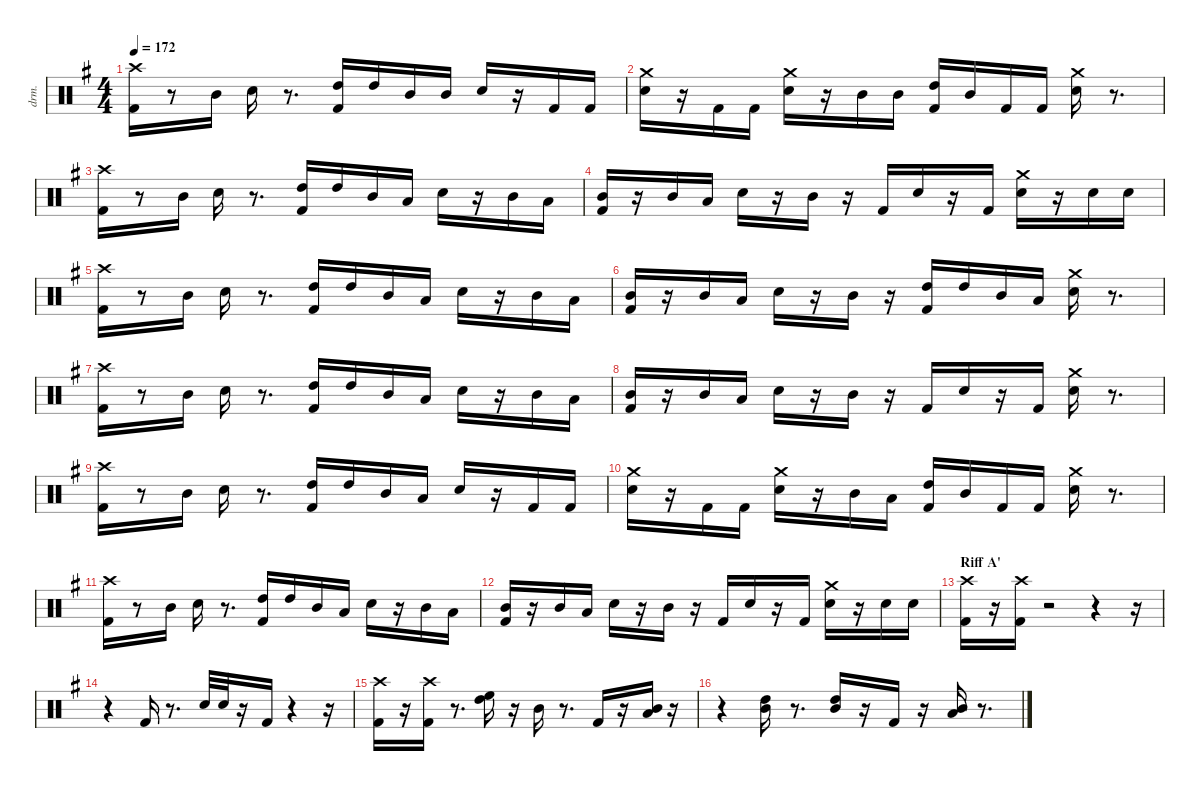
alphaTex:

\defaultSystemsLayout 4
\hideDynamics
\bracketExtendMode nobrackets
\otherSystemsTrackNameOrientation horizontal
\track ("Shinya" "drm.") {instrument percussion}
\staff {score}
\articulation defaults
\ts (4 4)
\tempo 172
\clef neutral
\ks eminor
("Kick (hit) 2"{acc forcenatural} "Crash high (hit)"{acc #}).16{dy fff} r.8 "Mid Tom (hit)"{acc forcenatural}.16 "Snare (hit) 2"{acc forcenatural}.16 r.8{d} ("Kick (hit) 2"{acc forcenatural} "High Tom (hit)"{acc forcenatural}).16 "High Tom (hit)"{acc forcenatural}.16 "Mid Tom (hit)"{acc forcenatural}.16 "Mid Tom (hit)"{acc forcenatural}.16 "Snare (hit) 2"{acc forcenatural}.16 r.16 "Kick (hit) 2"{acc forcenatural}.16 "Kick (hit) 2"{acc forcenatural}.16 |
("Snare (hit) 2"{acc forcenatural} "Crash medium (hit)"{acc forcenatural}).16 r.16 "Kick (hit) 2"{acc forcenatural}.16 "Kick (hit) 2"{acc forcenatural}.16 ("Snare (hit) 2"{acc forcenatural} "Crash medium (hit)"{acc forcenatural}).16 r.16 "Mid Tom (hit)"{acc forcenatural}.16 "Mid Tom (hit)"{acc forcenatural}.16 ("Kick (hit) 2"{acc forcenatural} "High Tom (hit)"{acc forcenatural}).16 "Mid Tom (hit)"{acc forcenatural}.16 "Kick (hit) 2"{acc forcenatural}.16 "Kick (hit) 2"{acc forcenatural}.16 ("Snare (hit) 2"{acc forcenatural} "Crash medium (hit)"{acc forcenatural}).16 r.8{d} |
("Kick (hit) 2"{acc forcenatural} "Crash high (hit)"{acc #}).16 r.8 "Mid Tom (hit)"{acc forcenatural}.16 "Snare (hit) 2"{acc forcenatural}.16 r.8{d} ("Kick (hit) 2"{acc forcenatural} "High Tom (hit)"{acc forcenatural}).16 "High Tom (hit)"{acc forcenatural}.16 "Mid Tom (hit)"{acc forcenatural}.16 "Low Tom (hit)"{acc forcenatural}.16 "Snare (hit) 2"{acc forcenatural}.16 r.16 "Mid Tom (hit)"{acc forcenatural}.16 "Low Tom (hit)"{acc forcenatural}.16 |
("Kick (hit) 2"{acc forcenatural} "Mid Tom (hit)"{acc forcenatural}).16 r.16 "Mid Tom (hit)"{acc forcenatural}.16 "Low Tom (hit)"{acc forcenatural}.16{dy ff} "Snare (hit) 2"{acc forcenatural}.16{dy fff} r.16 "Mid Tom (hit)"{acc forcenatural}.16 r.16 "Kick (hit) 2"{acc forcenatural}.16 "Snare (hit) 2"{acc forcenatural}.16 r.16 "Kick (hit) 2"{acc forcenatural}.16 ("Snare (hit) 2"{acc forcenatural} "Crash medium (hit)"{acc forcenatural}).16 r.16 "Snare (hit) 2"{acc forcenatural}.16 "Snare (hit) 2"{acc forcenatural}.16 |
("Kick (hit) 2"{acc forcenatural} "Crash high (hit)"{acc #}).16 r.8 "Mid Tom (hit)"{acc forcenatural}.16 "Snare (hit) 2"{acc forcenatural}.16 r.8{d} ("Kick (hit) 2"{acc forcenatural} "High Tom (hit)"{acc forcenatural}).16 "High Tom (hit)"{acc forcenatural}.16 "Mid Tom (hit)"{acc forcenatural}.16 "Low Tom (hit)"{acc forcenatural}.16 "Snare (hit) 2"{acc forcenatural}.16 r.16 "Mid Tom (hit)"{acc forcenatural}.16 "Low Tom (hit)"{acc forcenatural}.16 |
("Kick (hit) 2"{acc forcenatural} "Mid Tom (hit)"{acc forcenatural}).16 r.16 "Mid Tom (hit)"{acc forcenatural}.16 "Low Tom (hit)"{acc forcenatural}.16{dy ff} "Snare (hit) 2"{acc forcenatural}.16{dy fff} r.16 "Mid Tom (hit)"{acc forcenatural}.16 r.16 ("Kick (hit) 2"{acc forcenatural} "High Tom (hit)"{acc forcenatural}).16 "High Tom (hit)"{acc forcenatural}.16 "Mid Tom (hit)"{acc forcenatural}.16 "Low Tom (hit)"{acc forcenatural}.16 ("Snare (hit) 2"{acc forcenatural} "Crash medium (hit)"{acc forcenatural}).16 r.8{d} |
("Kick (hit) 2"{acc forcenatural} "Crash high (hit)"{acc #}).16 r.8 "Mid Tom (hit)"{acc forcenatural}.16 "Snare (hit) 2"{acc forcenatural}.16 r.8{d} ("Kick (hit) 2"{acc forcenatural} "High Tom (hit)"{acc forcenatural}).16 "High Tom (hit)"{acc forcenatural}.16 "Mid Tom (hit)"{acc forcenatural}.16 "Low Tom (hit)"{acc forcenatural}.16 "Snare (hit) 2"{acc forcenatural}.16 r.16 "Mid Tom (hit)"{acc forcenatural}.16 "Low Tom (hit)"{acc forcenatural}.16 |
("Kick (hit) 2"{acc forcenatural} "Mid Tom (hit)"{acc forcenatural}).16 r.16 "Mid Tom (hit)"{acc forcenatural}.16 "Low Tom (hit)"{acc forcenatural}.16{dy ff} "Snare (hit) 2"{acc forcenatural}.16{dy fff} r.16 "Mid Tom (hit)"{acc forcenatural}.16 r.16 "Kick (hit) 2"{acc forcenatural}.16 "Snare (hit) 2"{acc forcenatural}.16 r.16 "Kick (hit) 2"{acc forcenatural}.16 ("Snare (hit) 2"{acc forcenatural} "Crash medium (hit)"{acc forcenatural}).16 r.8{d} |
("Kick (hit) 2"{acc forcenatural} "Crash high (hit)"{acc #}).16 r.8 "Mid Tom (hit)"{acc forcenatural}.16 "Snare (hit) 2"{acc forcenatural}.16 r.8{d} ("Kick (hit) 2"{acc forcenatural} "High Tom (hit)"{acc forcenatural}).16 "High Tom (hit)"{acc forcenatural}.16 "Mid Tom (hit)"{acc forcenatural}.16 "Low Tom (hit)"{acc forcenatural}.16 "Snare (hit) 2"{acc forcenatural}.16 r.16 "Kick (hit) 2"{acc forcenatural}.16 "Kick (hit) 2"{acc forcenatural}.16 |
("Snare (hit) 2"{acc forcenatural} "Crash medium (hit)"{acc forcenatural}).16 r.16 "Kick (hit) 2"{acc forcenatural}.16 "Kick (hit) 2"{acc forcenatural}.16 ("Snare (hit) 2"{acc forcenatural} "Crash medium (hit)"{acc forcenatural}).16 r.16 "Mid Tom (hit)"{acc forcenatural}.16 "Low Tom (hit)"{acc forcenatural}.16 ("Kick (hit) 2"{acc forcenatural} "High Tom (hit)"{acc forcenatural}).16 "Mid Tom (hit)"{acc forcenatural}.16 "Kick (hit) 2"{acc forcenatural}.16 "Kick (hit) 2"{acc forcenatural}.16 ("Snare (hit) 2"{acc forcenatural} "Crash medium (hit)"{acc forcenatural}).16 r.8{d} |
("Kick (hit) 2"{acc forcenatural} "Crash high (hit)"{acc #}).16 r.8 "Mid Tom (hit)"{acc forcenatural}.16 "Snare (hit) 2"{acc forcenatural}.16 r.8{d} ("Kick (hit) 2"{acc forcenatural} "High Tom (hit)"{acc forcenatural}).16 "High Tom (hit)"{acc forcenatural}.16 "Mid Tom (hit)"{acc forcenatural}.16 "Low Tom (hit)"{acc forcenatural}.16 "Snare (hit) 2"{acc forcenatural}.16 r.16 "Mid Tom (hit)"{acc forcenatural}.16 "Low Tom (hit)"{acc forcenatural}.16 |
("Kick (hit) 2"{acc forcenatural} "Mid Tom (hit)"{acc forcenatural}).16 r.16 "Mid Tom (hit)"{acc forcenatural}.16 "Low Tom (hit)"{acc forcenatural}.16{dy ff} "Snare (hit) 2"{acc forcenatural}.16{dy fff} r.16 "Mid Tom (hit)"{acc forcenatural}.16 r.16 "Kick (hit) 2"{acc forcenatural}.16 "Snare (hit) 2"{acc forcenatural}.16 r.16 "Kick (hit) 2"{acc forcenatural}.16 ("Snare (hit) 2"{acc forcenatural} "Crash medium (hit)"{acc forcenatural}).16 r.16 "Snare (hit) 2"{acc forcenatural}.16 "Snare (hit) 2"{acc forcenatural}.16 |
\section ("" "Riff A'")
("Kick (hit) 2"{acc forcenatural} "Crash high (hit)"{acc #}).16 r.16 ("Kick (hit) 2"{acc forcenatural} "Crash high (hit)"{acc #}).16 r.2 r.4 r.16 |
r.4 "Kick (hit) 2"{acc forcenatural}.16 r.8{d} "Snare (hit) 2"{acc forcenatural}.32 "Snare (hit) 2"{acc forcenatural}.32 r.16 "Kick (hit) 2"{acc forcenatural}.16 r.4 r.16 |
("Kick (hit) 2"{acc forcenatural} "Crash high (hit)"{acc #}).16 r.16 ("Kick (hit) 2"{acc forcenatural} "Crash high (hit)"{acc #}).16 r.8{d} ("High Tom (hit)"{acc forcenatural} "High Floor Tom (hit)"{acc forcenatural}).16 r.16 "Mid Tom (hit)"{acc forcenatural}.16 r.8{d} "Kick (hit) 2"{acc forcenatural}.16 r.16 ("Low Tom (hit)"{acc forcenatural} "Mid Tom (hit)"{acc forcenatural}).16 r.16 |
r.4 ("Mid Tom (hit)"{acc forcenatural} "High Tom (hit)"{acc forcenatural}).16 r.8{d} ("Mid Tom (hit)"{acc forcenatural} "High Tom (hit)"{acc forcenatural}).16 r.16 "Kick (hit) 2"{acc forcenatural}.16 r.16 ("Low Tom (hit)"{acc forcenatural} "Mid Tom (hit)"{acc forcenatural}).16 r.8{d}
